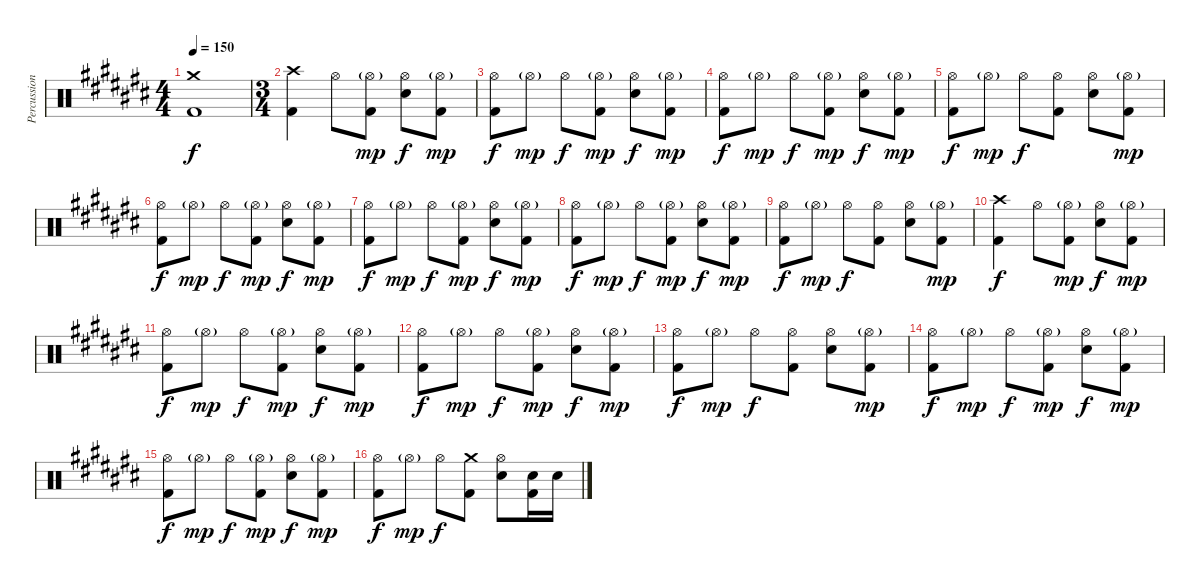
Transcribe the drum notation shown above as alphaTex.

\track ("Percussion" "Percussion") {instrument percussion}
\staff {score}
\articulation defaults
\ts (4 4)
\tempo 150
\clef neutral
\ks c#
("Crash medium (hit)" "Kick (hit) 2").1{dy f} |
\ts (3 4)
("Crash high (hit)" "Kick (hit) 2").4 "Hi-Hat (open)".8 ("Hi-Hat (open)"{g} "Kick (hit) 2").8{dy mp} ("Hi-Hat (open)" "Electric Snare (hit)").8{dy f} ("Hi-Hat (open)"{g} "Kick (hit) 2").8{dy mp} |
("Hi-Hat (open)" "Kick (hit) 2").8{dy f} "Hi-Hat (open)"{g}.8{dy mp} "Hi-Hat (open)".8{dy f} ("Hi-Hat (open)"{g} "Kick (hit) 2").8{dy mp} ("Hi-Hat (open)" "Electric Snare (hit)").8{dy f} ("Hi-Hat (open)"{g} "Kick (hit) 2").8{dy mp} |
("Hi-Hat (open)" "Kick (hit) 2").8{dy f} "Hi-Hat (open)"{g}.8{dy mp} "Hi-Hat (open)".8{dy f} ("Hi-Hat (open)"{g} "Kick (hit) 2").8{dy mp} ("Hi-Hat (open)" "Electric Snare (hit)").8{dy f} ("Hi-Hat (open)"{g} "Kick (hit) 2").8{dy mp} |
("Hi-Hat (open)" "Kick (hit) 2").8{dy f} "Hi-Hat (open)"{g}.8{dy mp} "Hi-Hat (open)".8{dy f} ("Hi-Hat (open)" "Kick (hit) 2").8 ("Hi-Hat (open)" "Electric Snare (hit)").8 ("Hi-Hat (open)"{g} "Kick (hit) 2").8{dy mp} |
("Hi-Hat (open)" "Kick (hit) 2").8{dy f} "Hi-Hat (open)"{g}.8{dy mp} "Hi-Hat (open)".8{dy f} ("Hi-Hat (open)"{g} "Kick (hit) 2").8{dy mp} ("Hi-Hat (open)" "Electric Snare (hit)").8{dy f} ("Hi-Hat (open)"{g} "Kick (hit) 2").8{dy mp} |
("Hi-Hat (open)" "Kick (hit) 2").8{dy f} "Hi-Hat (open)"{g}.8{dy mp} "Hi-Hat (open)".8{dy f} ("Hi-Hat (open)"{g} "Kick (hit) 2").8{dy mp} ("Hi-Hat (open)" "Electric Snare (hit)").8{dy f} ("Hi-Hat (open)"{g} "Kick (hit) 2").8{dy mp} |
("Hi-Hat (open)" "Kick (hit) 2").8{dy f} "Hi-Hat (open)"{g}.8{dy mp} "Hi-Hat (open)".8{dy f} ("Hi-Hat (open)"{g} "Kick (hit) 2").8{dy mp} ("Hi-Hat (open)" "Electric Snare (hit)").8{dy f} ("Hi-Hat (open)"{g} "Kick (hit) 2").8{dy mp} |
("Hi-Hat (open)" "Kick (hit) 2").8{dy f} "Hi-Hat (open)"{g}.8{dy mp} "Hi-Hat (open)".8{dy f} ("Hi-Hat (open)" "Kick (hit) 2").8 ("Hi-Hat (open)" "Electric Snare (hit)").8 ("Hi-Hat (open)"{g} "Kick (hit) 2").8{dy mp} |
("Crash high (hit)" "Kick (hit) 2").4{dy f} "Hi-Hat (open)".8 ("Hi-Hat (open)"{g} "Kick (hit) 2").8{dy mp} ("Hi-Hat (open)" "Electric Snare (hit)").8{dy f} ("Hi-Hat (open)"{g} "Kick (hit) 2").8{dy mp} |
("Hi-Hat (open)" "Kick (hit) 2").8{dy f} "Hi-Hat (open)"{g}.8{dy mp} "Hi-Hat (open)".8{dy f} ("Hi-Hat (open)"{g} "Kick (hit) 2").8{dy mp} ("Hi-Hat (open)" "Electric Snare (hit)").8{dy f} ("Hi-Hat (open)"{g} "Kick (hit) 2").8{dy mp} |
("Hi-Hat (open)" "Kick (hit) 2").8{dy f} "Hi-Hat (open)"{g}.8{dy mp} "Hi-Hat (open)".8{dy f} ("Hi-Hat (open)"{g} "Kick (hit) 2").8{dy mp} ("Hi-Hat (open)" "Electric Snare (hit)").8{dy f} ("Hi-Hat (open)"{g} "Kick (hit) 2").8{dy mp} |
("Hi-Hat (open)" "Kick (hit) 2").8{dy f} "Hi-Hat (open)"{g}.8{dy mp} "Hi-Hat (open)".8{dy f} ("Hi-Hat (open)" "Kick (hit) 2").8 ("Hi-Hat (open)" "Electric Snare (hit)").8 ("Hi-Hat (open)"{g} "Kick (hit) 2").8{dy mp} |
("Hi-Hat (open)" "Kick (hit) 2").8{dy f} "Hi-Hat (open)"{g}.8{dy mp} "Hi-Hat (open)".8{dy f} ("Hi-Hat (open)"{g} "Kick (hit) 2").8{dy mp} ("Hi-Hat (open)" "Electric Snare (hit)").8{dy f} ("Hi-Hat (open)"{g} "Kick (hit) 2").8{dy mp} |
("Hi-Hat (open)" "Kick (hit) 2").8{dy f} "Hi-Hat (open)"{g}.8{dy mp} "Hi-Hat (open)".8{dy f} ("Hi-Hat (open)"{g} "Kick (hit) 2").8{dy mp} ("Hi-Hat (open)" "Electric Snare (hit)").8{dy f} ("Hi-Hat (open)"{g} "Kick (hit) 2").8{dy mp} |
("Hi-Hat (open)" "Kick (hit) 2").8{dy f} "Hi-Hat (open)"{g}.8{dy mp} "Hi-Hat (open)".8{dy f} ("Crash medium (hit)" "Kick (hit) 2").8 ("Hi-Hat (open)" "Electric Snare (hit)").8 ("Electric Snare (hit)" "Kick (hit) 2").16 "Electric Snare (hit)".16
